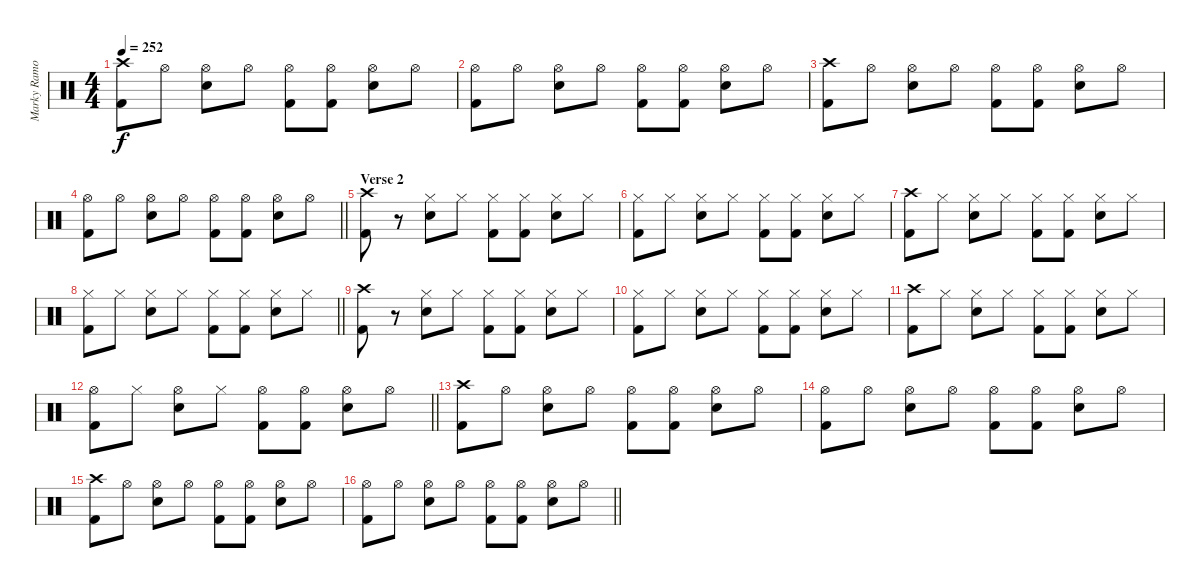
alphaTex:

\track ("Marky Ramone - Drums" "Marky Ramo") {instrument percussion}
\staff {score}
\articulation defaults
\ts (4 4)
\tempo 252
\clef neutral
\ks c
("Crash high (hit)" "Kick (hit) 2").8{dy f} "Hi-Hat (open)".8{volume 10} ("Hi-Hat (open)" "Snare (hit) 2").8 "Hi-Hat (open)".8{volume 10} ("Hi-Hat (open)" "Kick (hit) 2").8 ("Hi-Hat (open)" "Kick (hit) 2").8{volume 10} ("Hi-Hat (open)" "Snare (hit) 2").8 "Hi-Hat (open)".8{volume 10} |
("Hi-Hat (open)" "Kick (hit) 2").8 "Hi-Hat (open)".8{volume 10} ("Hi-Hat (open)" "Snare (hit) 2").8 "Hi-Hat (open)".8{volume 10} ("Hi-Hat (open)" "Kick (hit) 2").8 ("Hi-Hat (open)" "Kick (hit) 2").8{volume 10} ("Hi-Hat (open)" "Snare (hit) 2").8 "Hi-Hat (open)".8{volume 10} |
("Crash high (hit)" "Kick (hit) 2").8 "Hi-Hat (open)".8{volume 10} ("Hi-Hat (open)" "Snare (hit) 2").8 "Hi-Hat (open)".8{volume 10} ("Hi-Hat (open)" "Kick (hit) 2").8 ("Hi-Hat (open)" "Kick (hit) 2").8{volume 10} ("Hi-Hat (open)" "Snare (hit) 2").8 "Hi-Hat (open)".8{volume 10} |
\barLineRight lightlight
("Hi-Hat (open)" "Kick (hit) 2").8 "Hi-Hat (open)".8{volume 10} ("Hi-Hat (open)" "Snare (hit) 2").8 "Hi-Hat (open)".8{volume 10} ("Hi-Hat (open)" "Kick (hit) 2").8 ("Hi-Hat (open)" "Kick (hit) 2").8{volume 10} ("Hi-Hat (open)" "Snare (hit) 2").8 "Hi-Hat (open)".8{volume 10} |
\section ("" "Verse 2")
("Crash high (hit)" "Kick (hit) 2").8 r.8{volume 10} ("Hi-Hat (closed)" "Snare (hit) 2").8 "Hi-Hat (closed)".8{volume 10} ("Hi-Hat (closed)" "Kick (hit) 2").8 ("Hi-Hat (closed)" "Kick (hit) 2").8{volume 10} ("Hi-Hat (closed)" "Snare (hit) 2").8 "Hi-Hat (closed)".8{volume 10} |
("Hi-Hat (closed)" "Kick (hit) 2").8 "Hi-Hat (closed)".8{volume 10} ("Hi-Hat (closed)" "Snare (hit) 2").8 "Hi-Hat (closed)".8{volume 10} ("Hi-Hat (closed)" "Kick (hit) 2").8 ("Hi-Hat (closed)" "Kick (hit) 2").8{volume 10} ("Hi-Hat (closed)" "Snare (hit) 2").8 "Hi-Hat (closed)".8{volume 10} |
("Crash high (hit)" "Kick (hit) 2").8 "Hi-Hat (closed)".8{volume 10} ("Hi-Hat (closed)" "Snare (hit) 2").8 "Hi-Hat (closed)".8{volume 10} ("Hi-Hat (closed)" "Kick (hit) 2").8 ("Hi-Hat (closed)" "Kick (hit) 2").8{volume 10} ("Hi-Hat (closed)" "Snare (hit) 2").8 "Hi-Hat (closed)".8{volume 10} |
\barLineRight lightlight
("Hi-Hat (closed)" "Kick (hit) 2").8 "Hi-Hat (closed)".8{volume 10} ("Hi-Hat (closed)" "Snare (hit) 2").8 "Hi-Hat (closed)".8{volume 10} ("Hi-Hat (closed)" "Kick (hit) 2").8 ("Hi-Hat (closed)" "Kick (hit) 2").8{volume 10} ("Hi-Hat (closed)" "Snare (hit) 2").8 "Hi-Hat (closed)".8{volume 10} |
\section ("" "")
("Crash high (hit)" "Kick (hit) 2").8 r.8{volume 10} ("Hi-Hat (closed)" "Snare (hit) 2").8 "Hi-Hat (closed)".8{volume 10} ("Hi-Hat (closed)" "Kick (hit) 2").8 ("Hi-Hat (closed)" "Kick (hit) 2").8{volume 10} ("Hi-Hat (closed)" "Snare (hit) 2").8 "Hi-Hat (closed)".8{volume 10} |
("Hi-Hat (closed)" "Kick (hit) 2").8 "Hi-Hat (closed)".8{volume 10} ("Hi-Hat (closed)" "Snare (hit) 2").8 "Hi-Hat (closed)".8{volume 10} ("Hi-Hat (closed)" "Kick (hit) 2").8 ("Hi-Hat (closed)" "Kick (hit) 2").8{volume 10} ("Hi-Hat (closed)" "Snare (hit) 2").8 "Hi-Hat (closed)".8{volume 10} |
("Crash high (hit)" "Kick (hit) 2").8 "Hi-Hat (closed)".8{volume 10} ("Hi-Hat (closed)" "Snare (hit) 2").8 "Hi-Hat (closed)".8{volume 10} ("Hi-Hat (closed)" "Kick (hit) 2").8 ("Hi-Hat (closed)" "Kick (hit) 2").8{volume 10} ("Hi-Hat (closed)" "Snare (hit) 2").8 "Hi-Hat (closed)".8{volume 10} |
\barLineRight lightlight
("Hi-Hat (open)" "Kick (hit) 2").8 "Hi-Hat (closed)".8{volume 10} ("Hi-Hat (open)" "Snare (hit) 2").8 "Hi-Hat (closed)".8{volume 10} ("Hi-Hat (open)" "Kick (hit) 2").8 ("Hi-Hat (open)" "Kick (hit) 2").8{volume 10} ("Hi-Hat (open)" "Snare (hit) 2").8 "Hi-Hat (open)".8{volume 10} |
\section ("" "")
("Crash high (hit)" "Kick (hit) 2").8 "Hi-Hat (open)".8{volume 10} ("Hi-Hat (open)" "Snare (hit) 2").8 "Hi-Hat (open)".8{volume 10} ("Hi-Hat (open)" "Kick (hit) 2").8 ("Hi-Hat (open)" "Kick (hit) 2").8{volume 10} ("Hi-Hat (open)" "Snare (hit) 2").8 "Hi-Hat (open)".8{volume 10} |
("Hi-Hat (open)" "Kick (hit) 2").8 "Hi-Hat (open)".8{volume 10} ("Hi-Hat (open)" "Snare (hit) 2").8 "Hi-Hat (open)".8{volume 10} ("Hi-Hat (open)" "Kick (hit) 2").8 ("Hi-Hat (open)" "Kick (hit) 2").8{volume 10} ("Hi-Hat (open)" "Snare (hit) 2").8 "Hi-Hat (open)".8{volume 10} |
("Crash high (hit)" "Kick (hit) 2").8 "Hi-Hat (open)".8{volume 10} ("Hi-Hat (open)" "Snare (hit) 2").8 "Hi-Hat (open)".8{volume 10} ("Hi-Hat (open)" "Kick (hit) 2").8 ("Hi-Hat (open)" "Kick (hit) 2").8{volume 10} ("Hi-Hat (open)" "Snare (hit) 2").8 "Hi-Hat (open)".8{volume 10} |
\barLineRight lightlight
("Hi-Hat (open)" "Kick (hit) 2").8 "Hi-Hat (open)".8{volume 10} ("Hi-Hat (open)" "Snare (hit) 2").8 "Hi-Hat (open)".8{volume 10} ("Hi-Hat (open)" "Kick (hit) 2").8 ("Hi-Hat (open)" "Kick (hit) 2").8{volume 10} ("Hi-Hat (open)" "Snare (hit) 2").8 "Hi-Hat (open)".8{volume 10}
